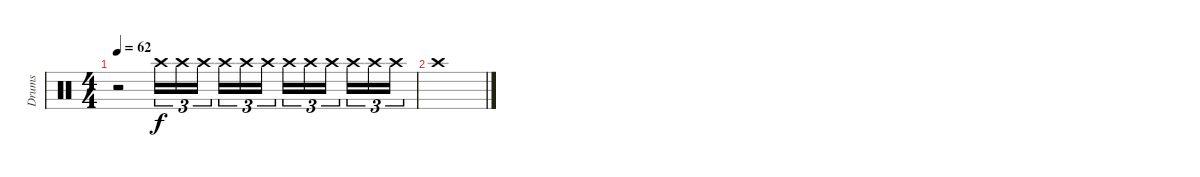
\track ("Drums" "Drums") {instrument percussion}
\staff {score}
\articulation defaults
\ts (4 4)
\tempo 62
\clef neutral
\ks c
r.2{dy f volume 0} "Crash high (hit)".16{tu (3 2) volume 11} "Crash high (hit)".16{tu (3 2)} "Crash high (hit)".16{tu (3 2)} "Crash high (hit)".16{tu (3 2)} "Crash high (hit)".16{tu (3 2)} "Crash high (hit)".16{tu (3 2)} "Crash high (hit)".16{tu (3 2)} "Crash high (hit)".16{tu (3 2)} "Crash high (hit)".16{tu (3 2)} "Crash high (hit)".16{tu (3 2)} "Crash high (hit)".16{tu (3 2)} "Crash high (hit)".16{tu (3 2)} |
"Crash high (hit)".1
